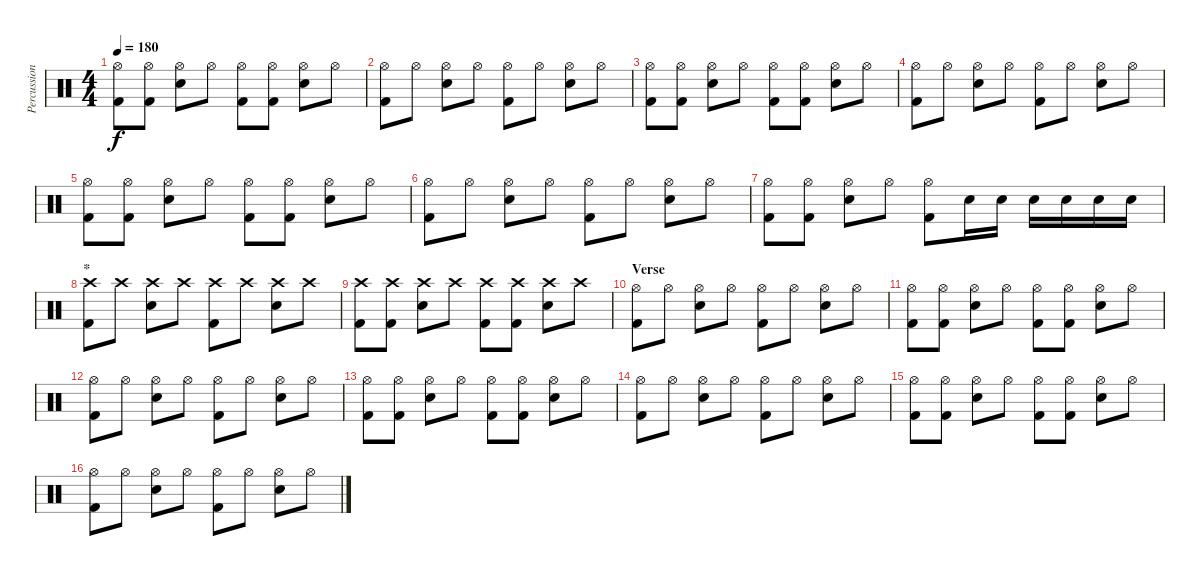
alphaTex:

\track ("Percussion" "Percussion") {instrument percussion}
\staff {score}
\articulation defaults
\ts (4 4)
\tempo 180
\clef neutral
\ks c
("Hi-Hat (open)" "Kick (hit) 2").8{dy f} ("Hi-Hat (open)" "Kick (hit) 2").8 ("Hi-Hat (open)" "Snare (hit) 2").8 "Hi-Hat (open)".8 ("Hi-Hat (open)" "Kick (hit) 2").8 ("Hi-Hat (open)" "Kick (hit) 2").8 ("Hi-Hat (open)" "Snare (hit) 2").8 "Hi-Hat (open)".8 |
("Hi-Hat (open)" "Kick (hit) 2").8 "Hi-Hat (open)".8 ("Hi-Hat (open)" "Snare (hit) 2").8 "Hi-Hat (open)".8 ("Hi-Hat (open)" "Kick (hit) 2").8 "Hi-Hat (open)".8 ("Hi-Hat (open)" "Snare (hit) 2").8 "Hi-Hat (open)".8 |
("Hi-Hat (open)" "Kick (hit) 2").8 ("Hi-Hat (open)" "Kick (hit) 2").8 ("Hi-Hat (open)" "Snare (hit) 2").8 "Hi-Hat (open)".8 ("Hi-Hat (open)" "Kick (hit) 2").8 ("Hi-Hat (open)" "Kick (hit) 2").8 ("Hi-Hat (open)" "Snare (hit) 2").8 "Hi-Hat (open)".8 |
("Hi-Hat (open)" "Kick (hit) 2").8 "Hi-Hat (open)".8 ("Hi-Hat (open)" "Snare (hit) 2").8 "Hi-Hat (open)".8 ("Hi-Hat (open)" "Kick (hit) 2").8 "Hi-Hat (open)".8 ("Hi-Hat (open)" "Snare (hit) 2").8 "Hi-Hat (open)".8 |
("Hi-Hat (open)" "Kick (hit) 2").8 ("Hi-Hat (open)" "Kick (hit) 2").8 ("Hi-Hat (open)" "Snare (hit) 2").8 "Hi-Hat (open)".8 ("Hi-Hat (open)" "Kick (hit) 2").8 ("Hi-Hat (open)" "Kick (hit) 2").8 ("Hi-Hat (open)" "Snare (hit) 2").8 "Hi-Hat (open)".8 |
("Hi-Hat (open)" "Kick (hit) 2").8 "Hi-Hat (open)".8 ("Hi-Hat (open)" "Snare (hit) 2").8 "Hi-Hat (open)".8 ("Hi-Hat (open)" "Kick (hit) 2").8 "Hi-Hat (open)".8 ("Hi-Hat (open)" "Snare (hit) 2").8 "Hi-Hat (open)".8 |
("Hi-Hat (open)" "Kick (hit) 2").8 ("Hi-Hat (open)" "Kick (hit) 2").8 ("Hi-Hat (open)" "Snare (hit) 2").8 "Hi-Hat (open)".8 ("Hi-Hat (open)" "Kick (hit) 2").8 "Snare (hit) 2".16 "Snare (hit) 2".16 "Snare (hit) 2".16 "Snare (hit) 2".16 "Snare (hit) 2".16 "Snare (hit) 2".16 |
\section ("" "*")
("Crash high (hit)" "Kick (hit) 2").8 "Crash high (hit)".8 ("Crash high (hit)" "Snare (hit) 2").8 "Crash high (hit)".8 ("Crash high (hit)" "Kick (hit) 2").8 "Crash high (hit)".8 ("Crash high (hit)" "Snare (hit) 2").8 "Crash high (hit)".8 |
("Crash high (hit)" "Kick (hit) 2").8 ("Crash high (hit)" "Kick (hit) 2").8 ("Crash high (hit)" "Snare (hit) 2").8 "Crash high (hit)".8 ("Crash high (hit)" "Kick (hit) 2").8 ("Crash high (hit)" "Kick (hit) 2").8 ("Crash high (hit)" "Snare (hit) 2").8 "Crash high (hit)".8 |
\section ("" "Verse")
("Hi-Hat (open)" "Kick (hit) 2").8 "Hi-Hat (open)".8 ("Hi-Hat (open)" "Snare (hit) 2").8 "Hi-Hat (open)".8 ("Hi-Hat (open)" "Kick (hit) 2").8 "Hi-Hat (open)".8 ("Hi-Hat (open)" "Snare (hit) 2").8 "Hi-Hat (open)".8 |
("Hi-Hat (open)" "Kick (hit) 2").8 ("Hi-Hat (open)" "Kick (hit) 2").8 ("Hi-Hat (open)" "Snare (hit) 2").8 "Hi-Hat (open)".8 ("Hi-Hat (open)" "Kick (hit) 2").8 ("Hi-Hat (open)" "Kick (hit) 2").8 ("Hi-Hat (open)" "Snare (hit) 2").8 "Hi-Hat (open)".8 |
("Hi-Hat (open)" "Kick (hit) 2").8 "Hi-Hat (open)".8 ("Hi-Hat (open)" "Snare (hit) 2").8 "Hi-Hat (open)".8 ("Hi-Hat (open)" "Kick (hit) 2").8 "Hi-Hat (open)".8 ("Hi-Hat (open)" "Snare (hit) 2").8 "Hi-Hat (open)".8 |
("Hi-Hat (open)" "Kick (hit) 2").8 ("Hi-Hat (open)" "Kick (hit) 2").8 ("Hi-Hat (open)" "Snare (hit) 2").8 "Hi-Hat (open)".8 ("Hi-Hat (open)" "Kick (hit) 2").8 ("Hi-Hat (open)" "Kick (hit) 2").8 ("Hi-Hat (open)" "Snare (hit) 2").8 "Hi-Hat (open)".8 |
("Hi-Hat (open)" "Kick (hit) 2").8 "Hi-Hat (open)".8 ("Hi-Hat (open)" "Snare (hit) 2").8 "Hi-Hat (open)".8 ("Hi-Hat (open)" "Kick (hit) 2").8 "Hi-Hat (open)".8 ("Hi-Hat (open)" "Snare (hit) 2").8 "Hi-Hat (open)".8 |
("Hi-Hat (open)" "Kick (hit) 2").8 ("Hi-Hat (open)" "Kick (hit) 2").8 ("Hi-Hat (open)" "Snare (hit) 2").8 "Hi-Hat (open)".8 ("Hi-Hat (open)" "Kick (hit) 2").8 ("Hi-Hat (open)" "Kick (hit) 2").8 ("Hi-Hat (open)" "Snare (hit) 2").8 "Hi-Hat (open)".8 |
("Hi-Hat (open)" "Kick (hit) 2").8 "Hi-Hat (open)".8 ("Hi-Hat (open)" "Snare (hit) 2").8 "Hi-Hat (open)".8 ("Hi-Hat (open)" "Kick (hit) 2").8 "Hi-Hat (open)".8 ("Hi-Hat (open)" "Snare (hit) 2").8 "Hi-Hat (open)".8
